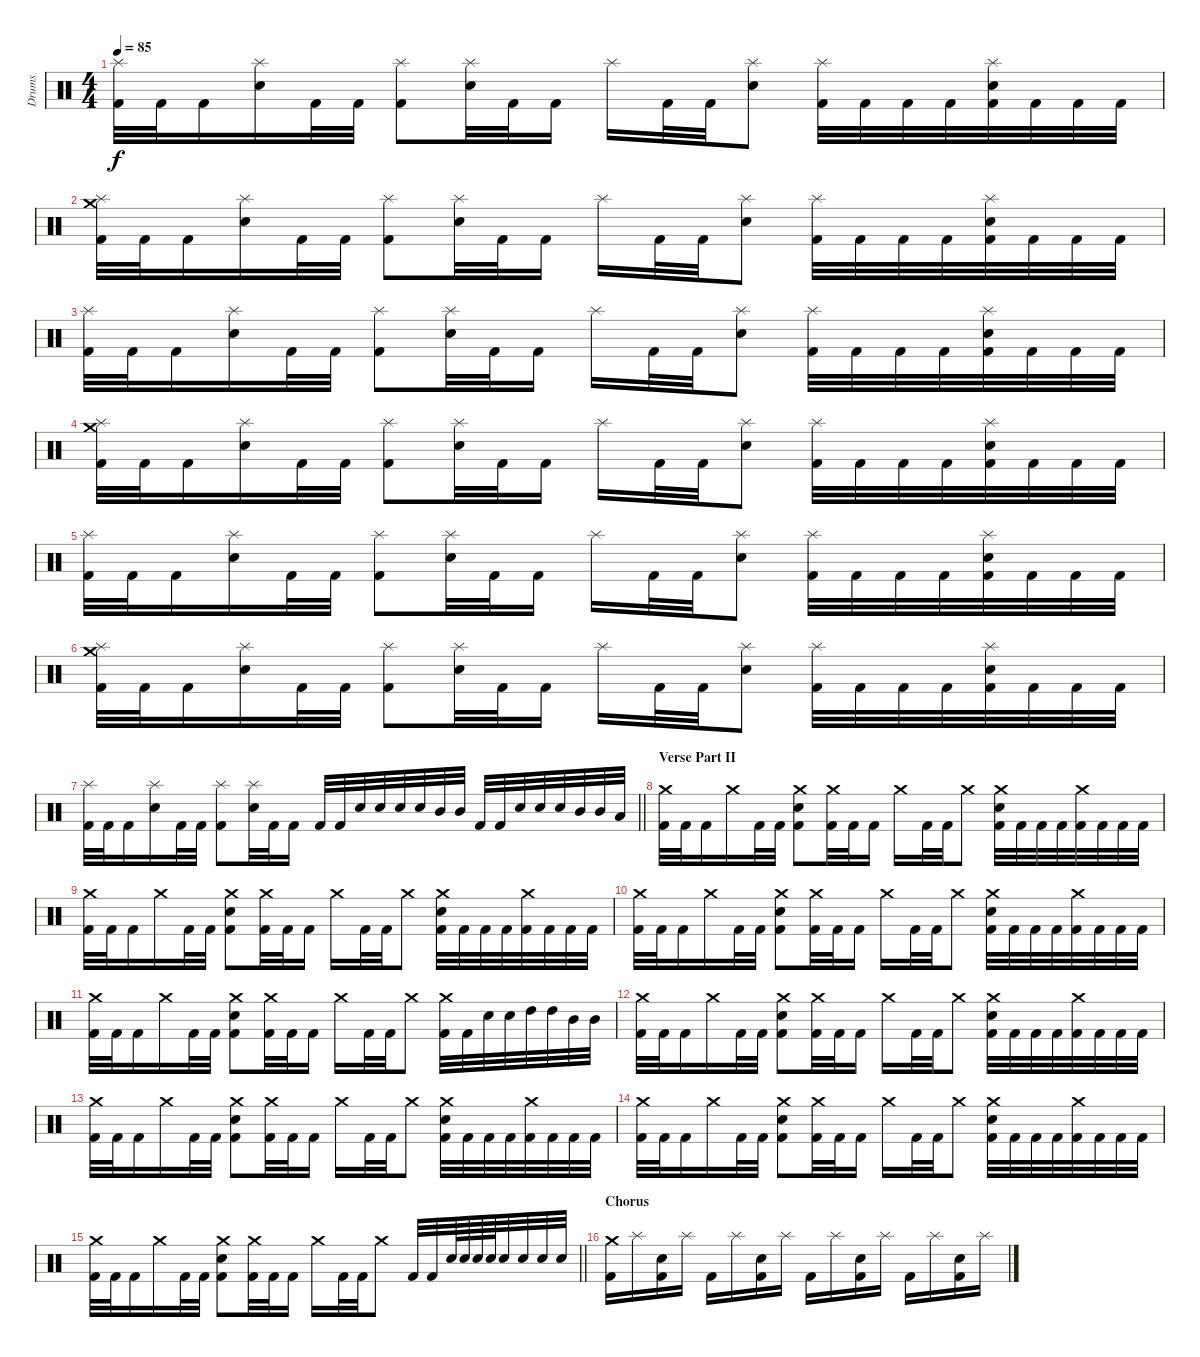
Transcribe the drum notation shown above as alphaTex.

\track ("Drums" "Drums") {instrument percussion}
\staff {score}
\articulation defaults
\ts (4 4)
\tempo 85
\clef neutral
\ks c
("Splash (hit)" "Kick (hit) 2").32{dy f} "Kick (hit) 2".32 "Kick (hit) 2".16 ("Splash (hit)" "Electric Snare (hit)").16 "Kick (hit) 2".32 "Kick (hit) 2".32 ("Splash (hit)" "Kick (hit) 2").8 ("Splash (hit)" "Electric Snare (hit)").32 "Kick (hit) 2".32 "Kick (hit) 2".16 "Splash (hit)".16 "Kick (hit) 2".32 "Kick (hit) 2".32 ("Splash (hit)" "Electric Snare (hit)").8 ("Splash (hit)" "Kick (hit) 2").32 "Kick (hit) 2".32 "Kick (hit) 2".32 "Kick (hit) 2".32 ("Splash (hit)" "Electric Snare (hit)" "Kick (hit) 2").32 "Kick (hit) 2".32 "Kick (hit) 2".32 "Kick (hit) 2".32 |
("Crash medium (hit)" "Splash (hit)" "Kick (hit) 2").32 "Kick (hit) 2".32 "Kick (hit) 2".16 ("Splash (hit)" "Electric Snare (hit)").16 "Kick (hit) 2".32 "Kick (hit) 2".32 ("Splash (hit)" "Kick (hit) 2").8 ("Splash (hit)" "Electric Snare (hit)").32 "Kick (hit) 2".32 "Kick (hit) 2".16 "Splash (hit)".16 "Kick (hit) 2".32 "Kick (hit) 2".32 ("Splash (hit)" "Electric Snare (hit)").8 ("Splash (hit)" "Kick (hit) 2").32 "Kick (hit) 2".32 "Kick (hit) 2".32 "Kick (hit) 2".32 ("Splash (hit)" "Electric Snare (hit)" "Kick (hit) 2").32 "Kick (hit) 2".32 "Kick (hit) 2".32 "Kick (hit) 2".32 |
("Splash (hit)" "Kick (hit) 2").32 "Kick (hit) 2".32 "Kick (hit) 2".16 ("Splash (hit)" "Electric Snare (hit)").16 "Kick (hit) 2".32 "Kick (hit) 2".32 ("Splash (hit)" "Kick (hit) 2").8 ("Splash (hit)" "Electric Snare (hit)").32 "Kick (hit) 2".32 "Kick (hit) 2".16 "Splash (hit)".16 "Kick (hit) 2".32 "Kick (hit) 2".32 ("Splash (hit)" "Electric Snare (hit)").8 ("Splash (hit)" "Kick (hit) 2").32 "Kick (hit) 2".32 "Kick (hit) 2".32 "Kick (hit) 2".32 ("Splash (hit)" "Electric Snare (hit)" "Kick (hit) 2").32 "Kick (hit) 2".32 "Kick (hit) 2".32 "Kick (hit) 2".32 |
("Crash medium (hit)" "Splash (hit)" "Kick (hit) 2").32 "Kick (hit) 2".32 "Kick (hit) 2".16 ("Splash (hit)" "Electric Snare (hit)").16 "Kick (hit) 2".32 "Kick (hit) 2".32 ("Splash (hit)" "Kick (hit) 2").8 ("Splash (hit)" "Electric Snare (hit)").32 "Kick (hit) 2".32 "Kick (hit) 2".16 "Splash (hit)".16 "Kick (hit) 2".32 "Kick (hit) 2".32 ("Splash (hit)" "Electric Snare (hit)").8 ("Splash (hit)" "Kick (hit) 2").32 "Kick (hit) 2".32 "Kick (hit) 2".32 "Kick (hit) 2".32 ("Splash (hit)" "Electric Snare (hit)" "Kick (hit) 2").32 "Kick (hit) 2".32 "Kick (hit) 2".32 "Kick (hit) 2".32 |
("Splash (hit)" "Kick (hit) 2").32 "Kick (hit) 2".32 "Kick (hit) 2".16 ("Splash (hit)" "Electric Snare (hit)").16 "Kick (hit) 2".32 "Kick (hit) 2".32 ("Splash (hit)" "Kick (hit) 2").8 ("Splash (hit)" "Electric Snare (hit)").32 "Kick (hit) 2".32 "Kick (hit) 2".16 "Splash (hit)".16 "Kick (hit) 2".32 "Kick (hit) 2".32 ("Splash (hit)" "Electric Snare (hit)").8 ("Splash (hit)" "Kick (hit) 2").32 "Kick (hit) 2".32 "Kick (hit) 2".32 "Kick (hit) 2".32 ("Splash (hit)" "Electric Snare (hit)" "Kick (hit) 2").32 "Kick (hit) 2".32 "Kick (hit) 2".32 "Kick (hit) 2".32 |
("Crash medium (hit)" "Splash (hit)" "Kick (hit) 2").32 "Kick (hit) 2".32 "Kick (hit) 2".16 ("Splash (hit)" "Electric Snare (hit)").16 "Kick (hit) 2".32 "Kick (hit) 2".32 ("Splash (hit)" "Kick (hit) 2").8 ("Splash (hit)" "Electric Snare (hit)").32 "Kick (hit) 2".32 "Kick (hit) 2".16 "Splash (hit)".16 "Kick (hit) 2".32 "Kick (hit) 2".32 ("Splash (hit)" "Electric Snare (hit)").8 ("Splash (hit)" "Kick (hit) 2").32 "Kick (hit) 2".32 "Kick (hit) 2".32 "Kick (hit) 2".32 ("Splash (hit)" "Electric Snare (hit)" "Kick (hit) 2").32 "Kick (hit) 2".32 "Kick (hit) 2".32 "Kick (hit) 2".32 |
\barLineRight lightlight
("Splash (hit)" "Kick (hit) 2").32 "Kick (hit) 2".32 "Kick (hit) 2".16 ("Splash (hit)" "Electric Snare (hit)").16 "Kick (hit) 2".32 "Kick (hit) 2".32 ("Splash (hit)" "Kick (hit) 2").8 ("Splash (hit)" "Electric Snare (hit)").32 "Kick (hit) 2".32 "Kick (hit) 2".16 "Kick (hit) 2".32 "Kick (hit) 2".32 "Electric Snare (hit)".32 "Electric Snare (hit)".32 "Electric Snare (hit)".32 "Electric Snare (hit)".32 "Mid Tom (hit)".32 "Mid Tom (hit)".32 "Kick (hit) 2".32 "Kick (hit) 2".32 "Electric Snare (hit)".32 "Electric Snare (hit)".32 "Electric Snare (hit)".32 "Mid Tom (hit)".32 "Mid Tom (hit)".32 "Low Tom (hit)".32 |
\section ("" "Verse Part II")
("Crash medium (hit)" "Kick (hit) 2").32 "Kick (hit) 2".32 "Kick (hit) 2".16 "Crash medium (hit)".16 "Kick (hit) 2".32 "Kick (hit) 2".32 ("Crash medium (hit)" "Electric Snare (hit)" "Kick (hit) 2").8 ("Crash medium (hit)" "Kick (hit) 2").32 "Kick (hit) 2".32 "Kick (hit) 2".16 "Crash medium (hit)".16 "Kick (hit) 2".32 "Kick (hit) 2".32 "Crash medium (hit)".8 ("Crash medium (hit)" "Electric Snare (hit)" "Kick (hit) 2").32 "Kick (hit) 2".32 "Kick (hit) 2".32 "Kick (hit) 2".32 ("Crash medium (hit)" "Kick (hit) 2").32 "Kick (hit) 2".32 "Kick (hit) 2".32 "Kick (hit) 2".32 |
("Crash medium (hit)" "Kick (hit) 2").32 "Kick (hit) 2".32 "Kick (hit) 2".16 "Crash medium (hit)".16 "Kick (hit) 2".32 "Kick (hit) 2".32 ("Crash medium (hit)" "Electric Snare (hit)" "Kick (hit) 2").8 ("Crash medium (hit)" "Kick (hit) 2").32 "Kick (hit) 2".32 "Kick (hit) 2".16 "Crash medium (hit)".16 "Kick (hit) 2".32 "Kick (hit) 2".32 "Crash medium (hit)".8 ("Crash medium (hit)" "Electric Snare (hit)" "Kick (hit) 2").32 "Kick (hit) 2".32 "Kick (hit) 2".32 "Kick (hit) 2".32 ("Crash medium (hit)" "Kick (hit) 2").32 "Kick (hit) 2".32 "Kick (hit) 2".32 "Kick (hit) 2".32 |
("Crash medium (hit)" "Kick (hit) 2").32 "Kick (hit) 2".32 "Kick (hit) 2".16 "Crash medium (hit)".16 "Kick (hit) 2".32 "Kick (hit) 2".32 ("Crash medium (hit)" "Electric Snare (hit)" "Kick (hit) 2").8 ("Crash medium (hit)" "Kick (hit) 2").32 "Kick (hit) 2".32 "Kick (hit) 2".16 "Crash medium (hit)".16 "Kick (hit) 2".32 "Kick (hit) 2".32 "Crash medium (hit)".8 ("Crash medium (hit)" "Electric Snare (hit)" "Kick (hit) 2").32 "Kick (hit) 2".32 "Kick (hit) 2".32 "Kick (hit) 2".32 ("Crash medium (hit)" "Kick (hit) 2").32 "Kick (hit) 2".32 "Kick (hit) 2".32 "Kick (hit) 2".32 |
("Crash medium (hit)" "Kick (hit) 2").32 "Kick (hit) 2".32 "Kick (hit) 2".16 "Crash medium (hit)".16 "Kick (hit) 2".32 "Kick (hit) 2".32 ("Crash medium (hit)" "Electric Snare (hit)" "Kick (hit) 2").8 ("Crash medium (hit)" "Kick (hit) 2").32 "Kick (hit) 2".32 "Kick (hit) 2".16 "Crash medium (hit)".16 "Kick (hit) 2".32 "Kick (hit) 2".32 "Crash medium (hit)".8 ("Crash medium (hit)" "Kick (hit) 2").32 "Kick (hit) 2".32 "Electric Snare (hit)".32 "Electric Snare (hit)".32 "High Tom (hit)".32 "High Tom (hit)".32 "Mid Tom (hit)".32 "Mid Tom (hit)".32 |
("Crash medium (hit)" "Kick (hit) 2").32 "Kick (hit) 2".32 "Kick (hit) 2".16 "Crash medium (hit)".16 "Kick (hit) 2".32 "Kick (hit) 2".32 ("Crash medium (hit)" "Electric Snare (hit)" "Kick (hit) 2").8 ("Crash medium (hit)" "Kick (hit) 2").32 "Kick (hit) 2".32 "Kick (hit) 2".16 "Crash medium (hit)".16 "Kick (hit) 2".32 "Kick (hit) 2".32 "Crash medium (hit)".8 ("Crash medium (hit)" "Electric Snare (hit)" "Kick (hit) 2").32 "Kick (hit) 2".32 "Kick (hit) 2".32 "Kick (hit) 2".32 ("Crash medium (hit)" "Kick (hit) 2").32 "Kick (hit) 2".32 "Kick (hit) 2".32 "Kick (hit) 2".32 |
("Crash medium (hit)" "Kick (hit) 2").32 "Kick (hit) 2".32 "Kick (hit) 2".16 "Crash medium (hit)".16 "Kick (hit) 2".32 "Kick (hit) 2".32 ("Crash medium (hit)" "Electric Snare (hit)" "Kick (hit) 2").8 ("Crash medium (hit)" "Kick (hit) 2").32 "Kick (hit) 2".32 "Kick (hit) 2".16 "Crash medium (hit)".16 "Kick (hit) 2".32 "Kick (hit) 2".32 "Crash medium (hit)".8 ("Crash medium (hit)" "Electric Snare (hit)" "Kick (hit) 2").32 "Kick (hit) 2".32 "Kick (hit) 2".32 "Kick (hit) 2".32 ("Crash medium (hit)" "Kick (hit) 2").32 "Kick (hit) 2".32 "Kick (hit) 2".32 "Kick (hit) 2".32 |
("Crash medium (hit)" "Kick (hit) 2").32 "Kick (hit) 2".32 "Kick (hit) 2".16 "Crash medium (hit)".16 "Kick (hit) 2".32 "Kick (hit) 2".32 ("Crash medium (hit)" "Electric Snare (hit)" "Kick (hit) 2").8 ("Crash medium (hit)" "Kick (hit) 2").32 "Kick (hit) 2".32 "Kick (hit) 2".16 "Crash medium (hit)".16 "Kick (hit) 2".32 "Kick (hit) 2".32 "Crash medium (hit)".8 ("Crash medium (hit)" "Electric Snare (hit)" "Kick (hit) 2").32 "Kick (hit) 2".32 "Kick (hit) 2".32 "Kick (hit) 2".32 ("Crash medium (hit)" "Kick (hit) 2").32 "Kick (hit) 2".32 "Kick (hit) 2".32 "Kick (hit) 2".32 |
\barLineRight lightlight
("Crash medium (hit)" "Kick (hit) 2").32 "Kick (hit) 2".32 "Kick (hit) 2".16 "Crash medium (hit)".16 "Kick (hit) 2".32 "Kick (hit) 2".32 ("Crash medium (hit)" "Electric Snare (hit)" "Kick (hit) 2").8 ("Crash medium (hit)" "Kick (hit) 2").32 "Kick (hit) 2".32 "Kick (hit) 2".16 "Crash medium (hit)".16 "Kick (hit) 2".32 "Kick (hit) 2".32 "Crash medium (hit)".8 "Kick (hit) 2".32 "Kick (hit) 2".32 "Electric Snare (hit)".64 "Electric Snare (hit)".64 "Electric Snare (hit)".64 "Electric Snare (hit)".64 "Electric Snare (hit)".32 "Electric Snare (hit)".32 "Electric Snare (hit)".32 "Electric Snare (hit)".32 |
\section ("" "Chorus")
("Crash medium (hit)" "Kick (hit) 2").16 "Splash (hit)".16 ("Electric Snare (hit)" "Kick (hit) 2").16 "Splash (hit)".16 "Kick (hit) 2".16 "Splash (hit)".16 ("Electric Snare (hit)" "Kick (hit) 2").16 "Splash (hit)".16 "Kick (hit) 2".16 "Splash (hit)".16 ("Electric Snare (hit)" "Kick (hit) 2").16 "Splash (hit)".16 "Kick (hit) 2".16 "Splash (hit)".16 ("Electric Snare (hit)" "Kick (hit) 2").16 "Splash (hit)".16
